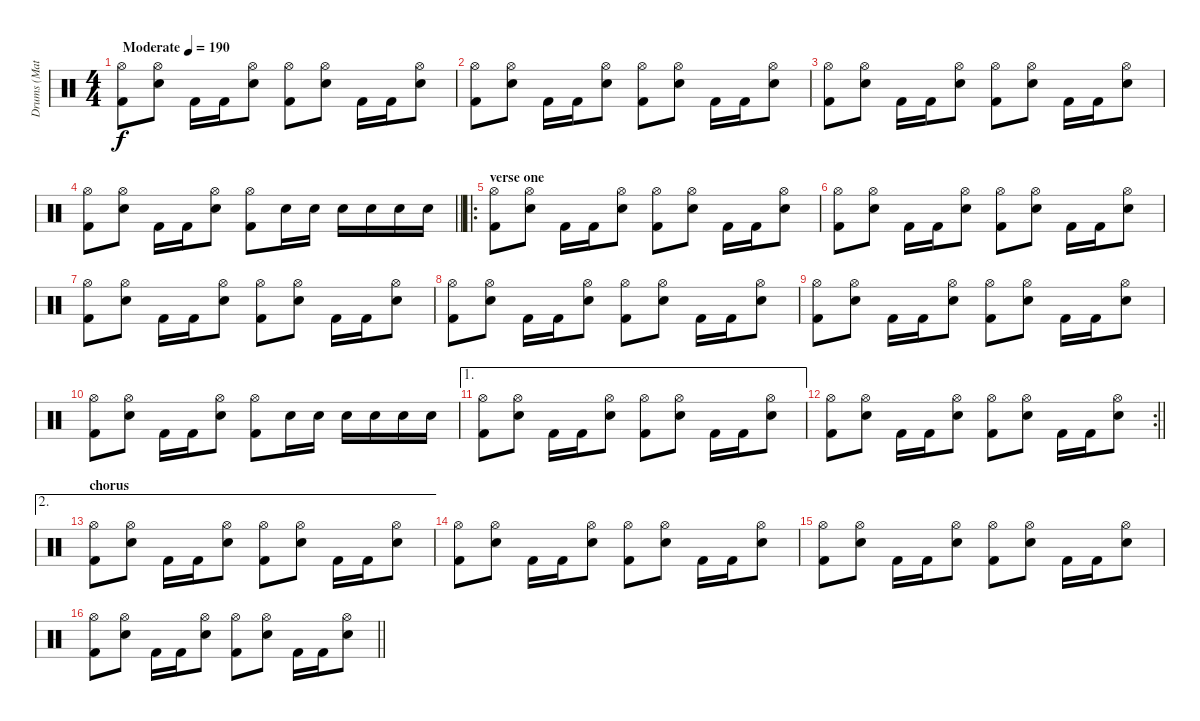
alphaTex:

\track ("Drums (Matt/Chris)" "Drums (Mat") {instrument percussion}
\staff {score}
\articulation defaults
\ts (4 4)
\tempo (190 "Moderate")
\clef neutral
\ks c
("Hi-Hat (open)" "Kick (hit) 2").8{dy f} ("Hi-Hat (open)" "Snare (hit) 2").8 "Kick (hit) 2".16 "Kick (hit) 2".16 ("Hi-Hat (open)" "Snare (hit) 2").8 ("Hi-Hat (open)" "Kick (hit) 2").8 ("Hi-Hat (open)" "Snare (hit) 2").8 "Kick (hit) 2".16 "Kick (hit) 2".16 ("Hi-Hat (open)" "Snare (hit) 2").8 |
("Hi-Hat (open)" "Kick (hit) 2").8 ("Hi-Hat (open)" "Snare (hit) 2").8 "Kick (hit) 2".16 "Kick (hit) 2".16 ("Hi-Hat (open)" "Snare (hit) 2").8 ("Hi-Hat (open)" "Kick (hit) 2").8 ("Hi-Hat (open)" "Snare (hit) 2").8 "Kick (hit) 2".16 "Kick (hit) 2".16 ("Hi-Hat (open)" "Snare (hit) 2").8 |
("Hi-Hat (open)" "Kick (hit) 2").8 ("Hi-Hat (open)" "Snare (hit) 2").8 "Kick (hit) 2".16 "Kick (hit) 2".16 ("Hi-Hat (open)" "Snare (hit) 2").8 ("Hi-Hat (open)" "Kick (hit) 2").8 ("Hi-Hat (open)" "Snare (hit) 2").8 "Kick (hit) 2".16 "Kick (hit) 2".16 ("Hi-Hat (open)" "Snare (hit) 2").8 |
\barLineRight lightlight
("Hi-Hat (open)" "Kick (hit) 2").8 ("Hi-Hat (open)" "Snare (hit) 2").8 "Kick (hit) 2".16 "Kick (hit) 2".16 ("Hi-Hat (open)" "Snare (hit) 2").8 ("Hi-Hat (open)" "Kick (hit) 2").8 "Snare (hit) 2".16 "Snare (hit) 2".16 "Snare (hit) 2".16 "Snare (hit) 2".16 "Snare (hit) 2".16 "Snare (hit) 2".16 |
\ro
\section ("" "verse one")
("Hi-Hat (open)" "Kick (hit) 2").8 ("Hi-Hat (open)" "Snare (hit) 2").8 "Kick (hit) 2".16 "Kick (hit) 2".16 ("Hi-Hat (open)" "Snare (hit) 2").8 ("Hi-Hat (open)" "Kick (hit) 2").8 ("Hi-Hat (open)" "Snare (hit) 2").8 "Kick (hit) 2".16 "Kick (hit) 2".16 ("Hi-Hat (open)" "Snare (hit) 2").8 |
("Hi-Hat (open)" "Kick (hit) 2").8 ("Hi-Hat (open)" "Snare (hit) 2").8 "Kick (hit) 2".16 "Kick (hit) 2".16 ("Hi-Hat (open)" "Snare (hit) 2").8 ("Hi-Hat (open)" "Kick (hit) 2").8 ("Hi-Hat (open)" "Snare (hit) 2").8 "Kick (hit) 2".16 "Kick (hit) 2".16 ("Hi-Hat (open)" "Snare (hit) 2").8 |
("Hi-Hat (open)" "Kick (hit) 2").8 ("Hi-Hat (open)" "Snare (hit) 2").8 "Kick (hit) 2".16 "Kick (hit) 2".16 ("Hi-Hat (open)" "Snare (hit) 2").8 ("Hi-Hat (open)" "Kick (hit) 2").8 ("Hi-Hat (open)" "Snare (hit) 2").8 "Kick (hit) 2".16 "Kick (hit) 2".16 ("Hi-Hat (open)" "Snare (hit) 2").8 |
("Hi-Hat (open)" "Kick (hit) 2").8 ("Hi-Hat (open)" "Snare (hit) 2").8 "Kick (hit) 2".16 "Kick (hit) 2".16 ("Hi-Hat (open)" "Snare (hit) 2").8 ("Hi-Hat (open)" "Kick (hit) 2").8 ("Hi-Hat (open)" "Snare (hit) 2").8 "Kick (hit) 2".16 "Kick (hit) 2".16 ("Hi-Hat (open)" "Snare (hit) 2").8 |
("Hi-Hat (open)" "Kick (hit) 2").8 ("Hi-Hat (open)" "Snare (hit) 2").8 "Kick (hit) 2".16 "Kick (hit) 2".16 ("Hi-Hat (open)" "Snare (hit) 2").8 ("Hi-Hat (open)" "Kick (hit) 2").8 ("Hi-Hat (open)" "Snare (hit) 2").8 "Kick (hit) 2".16 "Kick (hit) 2".16 ("Hi-Hat (open)" "Snare (hit) 2").8 |
("Hi-Hat (open)" "Kick (hit) 2").8 ("Hi-Hat (open)" "Snare (hit) 2").8 "Kick (hit) 2".16 "Kick (hit) 2".16 ("Hi-Hat (open)" "Snare (hit) 2").8 ("Hi-Hat (open)" "Kick (hit) 2").8 "Snare (hit) 2".16 "Snare (hit) 2".16 "Snare (hit) 2".16 "Snare (hit) 2".16 "Snare (hit) 2".16 "Snare (hit) 2".16 |
\ae 1
("Hi-Hat (open)" "Kick (hit) 2").8 ("Hi-Hat (open)" "Snare (hit) 2").8 "Kick (hit) 2".16 "Kick (hit) 2".16 ("Hi-Hat (open)" "Snare (hit) 2").8 ("Hi-Hat (open)" "Kick (hit) 2").8 ("Hi-Hat (open)" "Snare (hit) 2").8 "Kick (hit) 2".16 "Kick (hit) 2".16 ("Hi-Hat (open)" "Snare (hit) 2").8 |
\rc 2
\barLineRight lightlight
("Hi-Hat (open)" "Kick (hit) 2").8 ("Hi-Hat (open)" "Snare (hit) 2").8 "Kick (hit) 2".16 "Kick (hit) 2".16 ("Hi-Hat (open)" "Snare (hit) 2").8 ("Hi-Hat (open)" "Kick (hit) 2").8 ("Hi-Hat (open)" "Snare (hit) 2").8 "Kick (hit) 2".16 "Kick (hit) 2".16 ("Hi-Hat (open)" "Snare (hit) 2").8 |
\ae 2
\section ("" "chorus")
("Hi-Hat (open)" "Kick (hit) 2").8 ("Hi-Hat (open)" "Snare (hit) 2").8 "Kick (hit) 2".16 "Kick (hit) 2".16 ("Hi-Hat (open)" "Snare (hit) 2").8 ("Hi-Hat (open)" "Kick (hit) 2").8 ("Hi-Hat (open)" "Snare (hit) 2").8 "Kick (hit) 2".16 "Kick (hit) 2".16 ("Hi-Hat (open)" "Snare (hit) 2").8 |
("Hi-Hat (open)" "Kick (hit) 2").8 ("Hi-Hat (open)" "Snare (hit) 2").8 "Kick (hit) 2".16 "Kick (hit) 2".16 ("Hi-Hat (open)" "Snare (hit) 2").8 ("Hi-Hat (open)" "Kick (hit) 2").8 ("Hi-Hat (open)" "Snare (hit) 2").8 "Kick (hit) 2".16 "Kick (hit) 2".16 ("Hi-Hat (open)" "Snare (hit) 2").8 |
("Hi-Hat (open)" "Kick (hit) 2").8 ("Hi-Hat (open)" "Snare (hit) 2").8 "Kick (hit) 2".16 "Kick (hit) 2".16 ("Hi-Hat (open)" "Snare (hit) 2").8 ("Hi-Hat (open)" "Kick (hit) 2").8 ("Hi-Hat (open)" "Snare (hit) 2").8 "Kick (hit) 2".16 "Kick (hit) 2".16 ("Hi-Hat (open)" "Snare (hit) 2").8 |
\barLineRight lightlight
("Hi-Hat (open)" "Kick (hit) 2").8 ("Hi-Hat (open)" "Snare (hit) 2").8 "Kick (hit) 2".16 "Kick (hit) 2".16 ("Hi-Hat (open)" "Snare (hit) 2").8 ("Hi-Hat (open)" "Kick (hit) 2").8 ("Hi-Hat (open)" "Snare (hit) 2").8 "Kick (hit) 2".16 "Kick (hit) 2".16 ("Hi-Hat (open)" "Snare (hit) 2").8
